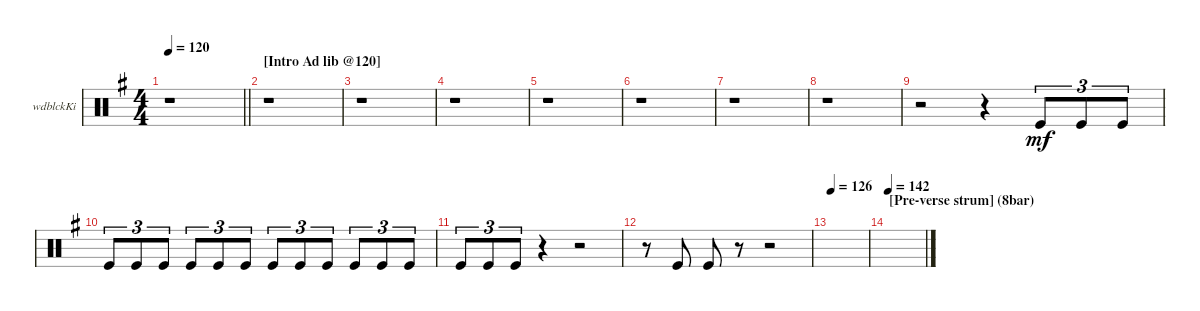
\bracketExtendMode groupsimilarinstruments
\firstSystemTrackNameOrientation horizontal
\otherSystemsTrackNameOrientation horizontal
\track ("Woodblock" "wdblckKi") {instrument percussion}
\staff {score}
\articulation defaults
\ts (4 4)
\tempo 120
\clef neutral
\barLineRight lightlight
\ks eminor
r.1{dy mf} |
\section ("" "[Intro Ad lib @120]")
r.1 |
r.1 |
r.1 |
r.1 |
r.1 |
r.1 |
r.1 |
r.2 r.4 "Kick (hit)".8{tu (3 2)} "Kick (hit)".8{tu (3 2)} "Kick (hit)".8{tu (3 2)} |
"Kick (hit)".8{tu (3 2)} "Kick (hit)".8{tu (3 2)} "Kick (hit)".8{tu (3 2)} "Kick (hit)".8{tu (3 2)} "Kick (hit)".8{tu (3 2)} "Kick (hit)".8{tu (3 2)} "Kick (hit)".8{tu (3 2)} "Kick (hit)".8{tu (3 2)} "Kick (hit)".8{tu (3 2)} "Kick (hit)".8{tu (3 2)} "Kick (hit)".8{tu (3 2)} "Kick (hit)".8{tu (3 2)} |
"Kick (hit)".8{tu (3 2)} "Kick (hit)".8{tu (3 2)} "Kick (hit)".8{tu (3 2)} r.4 r.2 |
r.8 "Kick (hit)".8 "Kick (hit)".8 r.8 r.2 |
\tempo 126
|
\section ("" "[Pre-verse strum] (8bar)")
\tempo (142 0.00625)
